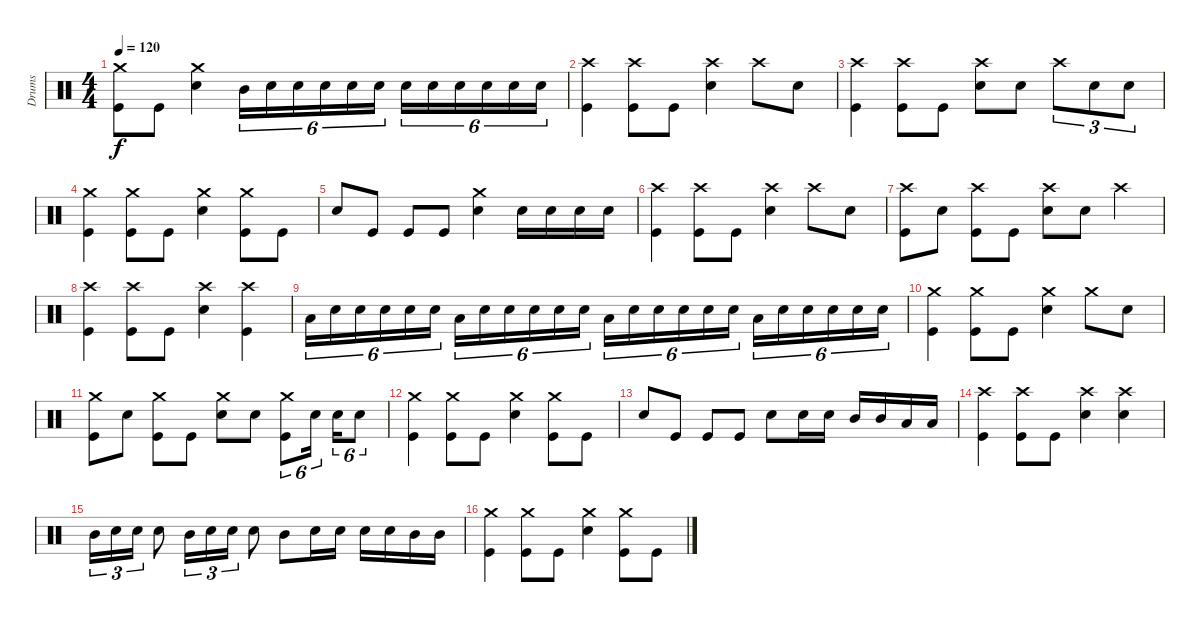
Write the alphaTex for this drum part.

\track ("Drums" "Drums") {instrument percussion}
\staff {score}
\articulation defaults
\ts (4 4)
\tempo 120
\clef neutral
\ks c
("Kick (hit)" "Crash medium (hit)").8{dy f} "Kick (hit)".8 ("Snare (hit) 2" "Crash medium (hit)").4 "Mid Tom (hit)".16{tu (6 4)} "Snare (hit) 2".16{tu (6 4)} "Snare (hit) 2".16{tu (6 4)} "Snare (hit) 2".16{tu (6 4)} "Snare (hit) 2".16{tu (6 4)} "Snare (hit) 2".16{tu (6 4)} "Snare (hit) 2".16{tu (6 4)} "Snare (hit) 2".16{tu (6 4)} "Snare (hit) 2".16{tu (6 4)} "Snare (hit) 2".16{tu (6 4)} "Snare (hit) 2".16{tu (6 4)} "Snare (hit) 2".16{tu (6 4)} |
("Kick (hit)" "Crash high (hit)").4 ("Kick (hit)" "Crash high (hit)").8 "Kick (hit)".8 ("Snare (hit) 2" "Crash high (hit)").4 "Crash high (hit)".8 "Snare (hit) 2".8 |
("Kick (hit)" "Crash high (hit)").4 ("Kick (hit)" "Crash high (hit)").8 "Kick (hit)".8 ("Snare (hit) 2" "Crash high (hit)").8 "Snare (hit) 2".8 "Crash high (hit)".8{tu (3 2)} "Snare (hit) 2".8{tu (3 2)} "Snare (hit) 2".8{tu (3 2)} |
("Kick (hit)" "Crash medium (hit)").4 ("Kick (hit)" "Crash medium (hit)").8 "Kick (hit)".8 ("Snare (hit) 2" "Crash medium (hit)").4 ("Kick (hit)" "Crash medium (hit)").8 "Kick (hit)".8 |
"Snare (hit) 2".8 "Kick (hit)".8 "Kick (hit)".8 "Kick (hit)".8 ("Snare (hit) 2" "Crash medium (hit)").4 "Snare (hit) 2".16 "Snare (hit) 2".16 "Snare (hit) 2".16 "Snare (hit) 2".16 |
("Kick (hit)" "Crash high (hit)").4 ("Kick (hit)" "Crash high (hit)").8 "Kick (hit)".8 ("Snare (hit) 2" "Crash high (hit)").4 "Crash high (hit)".8 "Snare (hit) 2".8 |
("Kick (hit)" "Crash high (hit)").8 "Snare (hit) 2".8 ("Kick (hit)" "Crash high (hit)").8 "Kick (hit)".8 ("Snare (hit) 2" "Crash high (hit)").8 "Snare (hit) 2".8 "Crash high (hit)".4 |
("Kick (hit)" "Crash high (hit)").4 ("Kick (hit)" "Crash high (hit)").8 "Kick (hit)".8 ("Snare (hit) 2" "Crash high (hit)").4 ("Kick (hit)" "Crash high (hit)").4 |
"Low Tom (hit)".16{tu (6 4)} "Snare (hit) 2".16{tu (6 4)} "Snare (hit) 2".16{tu (6 4)} "Snare (hit) 2".16{tu (6 4)} "Snare (hit) 2".16{tu (6 4)} "Snare (hit) 2".16{tu (6 4)} "Low Tom (hit)".16{tu (6 4)} "Snare (hit) 2".16{tu (6 4)} "Snare (hit) 2".16{tu (6 4)} "Snare (hit) 2".16{tu (6 4)} "Snare (hit) 2".16{tu (6 4)} "Snare (hit) 2".16{tu (6 4)} "Low Tom (hit)".16{tu (6 4)} "Snare (hit) 2".16{tu (6 4)} "Snare (hit) 2".16{tu (6 4)} "Snare (hit) 2".16{tu (6 4)} "Snare (hit) 2".16{tu (6 4)} "Snare (hit) 2".16{tu (6 4)} "Low Tom (hit)".16{tu (6 4)} "Snare (hit) 2".16{tu (6 4)} "Snare (hit) 2".16{tu (6 4)} "Snare (hit) 2".16{tu (6 4)} "Snare (hit) 2".16{tu (6 4)} "Snare (hit) 2".16{tu (6 4)} |
("Kick (hit)" "Crash medium (hit)").4 ("Kick (hit)" "Crash medium (hit)").8 "Kick (hit)".8 ("Snare (hit) 2" "Crash medium (hit)").4 "Crash medium (hit)".8 "Snare (hit) 2".8 |
("Kick (hit)" "Crash medium (hit)").8 "Snare (hit) 2".8 ("Kick (hit)" "Crash medium (hit)").8 "Kick (hit)".8 ("Snare (hit) 2" "Crash medium (hit)").8 "Snare (hit) 2".8 ("Kick (hit)" "Crash medium (hit)").8{tu (6 4)} "Snare (hit) 2".16{tu (6 4)} "Snare (hit) 2".16{tu (6 4)} "Snare (hit) 2".8{tu (6 4)} |
("Kick (hit)" "Crash medium (hit)").4 ("Kick (hit)" "Crash medium (hit)").8 "Kick (hit)".8 ("Snare (hit) 2" "Crash medium (hit)").4 ("Kick (hit)" "Crash medium (hit)").8 "Kick (hit)".8 |
"Snare (hit) 2".8 "Kick (hit)".8 "Kick (hit)".8 "Kick (hit)".8 "Snare (hit) 2".8 "Snare (hit) 2".16 "Snare (hit) 2".16 "Mid Tom (hit)".16 "Mid Tom (hit)".16 "Low Tom (hit)".16 "Low Tom (hit)".16 |
("Kick (hit)" "Crash high (hit)").4 ("Kick (hit)" "Crash high (hit)").8 "Kick (hit)".8 ("Snare (hit) 2" "Crash high (hit)").4 ("Snare (hit) 2" "Crash high (hit)").4 |
"Mid Tom (hit)".16{tu (3 2)} "Snare (hit) 2".16{tu (3 2)} "Snare (hit) 2".16{tu (3 2)} "Snare (hit) 2".8 "Mid Tom (hit)".16{tu (3 2)} "Snare (hit) 2".16{tu (3 2)} "Snare (hit) 2".16{tu (3 2)} "Snare (hit) 2".8 "Mid Tom (hit)".8 "Snare (hit) 2".16 "Snare (hit) 2".16 "Snare (hit) 2".16 "Snare (hit) 2".16 "Mid Tom (hit)".16 "Mid Tom (hit)".16 |
("Kick (hit)" "Crash medium (hit)").4 ("Kick (hit)" "Crash medium (hit)").8 "Kick (hit)".8 ("Snare (hit) 2" "Crash medium (hit)").4 ("Kick (hit)" "Crash medium (hit)").8 "Kick (hit)".8
